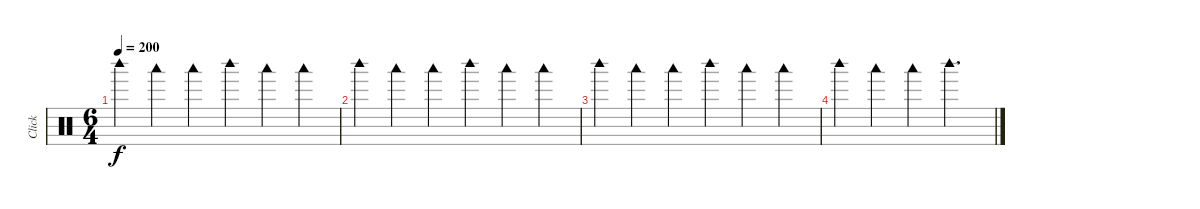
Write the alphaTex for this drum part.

\track ("Click" "Click") {mute instrument percussion}
\staff {score}
\articulation defaults
\ts (6 4)
\tempo 200
\clef neutral
\ks c "Woodblock high (hit)".4{dy f} "Woodblock low (hit)".4 "Woodblock low (hit)".4 "Woodblock high (hit)".4 "Woodblock low (hit)".4 "Woodblock low (hit)".4
|
"Woodblock high (hit)".4 "Woodblock low (hit)".4 "Woodblock low (hit)".4 "Woodblock high (hit)".4 "Woodblock low (hit)".4 "Woodblock low (hit)".4 |
"Woodblock high (hit)".4 "Woodblock low (hit)".4 "Woodblock low (hit)".4 "Woodblock high (hit)".4 "Woodblock low (hit)".4 "Woodblock low (hit)".4 |
"Woodblock high (hit)".4 "Woodblock low (hit)".4 "Woodblock low (hit)".4 "Woodblock high (hit)".2{d}
